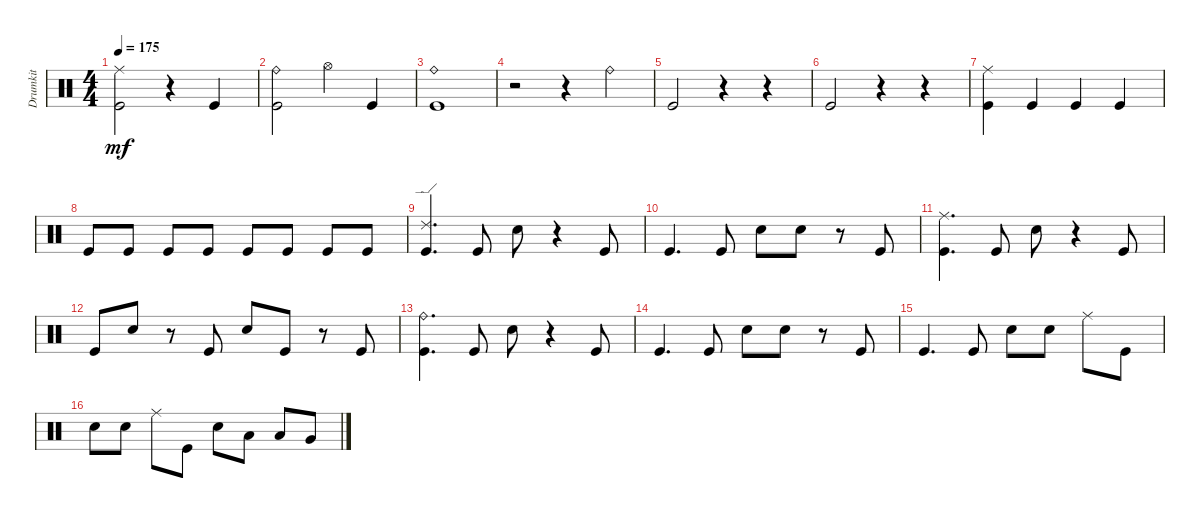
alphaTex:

\track ("Drumkit" "Drumkit") {instrument percussion}
\staff {score}
\articulation defaults
\ts (4 4)
\tempo 175
\clef neutral
\ks c
("Kick (hit)" "Ride (middle)").2{dy mf} r.4 "Kick (hit)".4 |
("Kick (hit)" "Ride (bell)").2 "Hi-Hat (open)".4 "Kick (hit)".4 |
("Kick (hit)" "Ride (bell)").1 |
r.2 r.4 "Ride (bell)".4 |
"Kick (hit)".2 r.4 r.4 |
"Kick (hit)".2 r.4 r.4 |
("Kick (hit)" "Ride (middle)").4 "Kick (hit)".4 "Kick (hit)".4 "Kick (hit)".4 |
"Kick (hit)".8 "Kick (hit)".8 "Kick (hit)".8 "Kick (hit)".8 "Kick (hit)".8 "Kick (hit)".8 "Kick (hit)".8 "Kick (hit)".8 |
("Kick (hit)" "Ride (edge) 2").4{d} "Kick (hit)".8 "Snare (hit) 2".8 r.4 "Kick (hit)".8 |
"Kick (hit)".4{d} "Kick (hit)".8 "Snare (hit) 2".8 "Snare (hit) 2".8 r.8 "Kick (hit)".8 |
("Kick (hit)" "Ride (middle)").4{d} "Kick (hit)".8 "Snare (hit) 2".8 r.4 "Kick (hit)".8 |
"Kick (hit)".8 "Snare (hit) 2".8 r.8 "Kick (hit)".8 "Snare (hit) 2".8 "Kick (hit)".8 r.8 "Kick (hit)".8 |
("Kick (hit)" "Ride (bell)").4{d} "Kick (hit)".8 "Snare (hit) 2".8 r.4 "Kick (hit)".8 |
"Kick (hit)".4{d} "Kick (hit)".8 "Snare (hit) 2".8 "Snare (hit) 2".8 r.8 "Kick (hit)".8 |
"Kick (hit)".4{d} "Kick (hit)".8 "Snare (hit) 2".8 "Snare (hit) 2".8 "Ride (middle)".8 "Kick (hit)".8 |
"Snare (hit) 2".8 "Snare (hit) 2".8 "Ride (middle)".8 "Kick (hit)".8 "Snare (hit) 2".8 "Low Floor Tom (hit)".8 "Low Tom (hit)".8 "Very Low Tom (hit)".8
